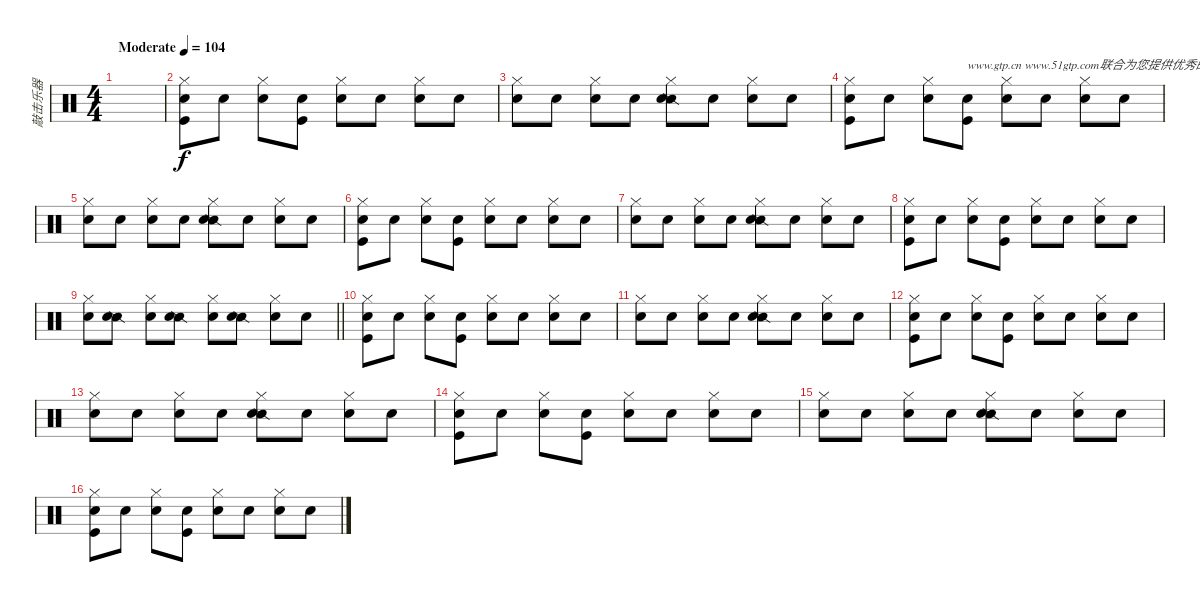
\track ("敲击乐器" "敲击乐器") {instrument percussion}
\staff {score}
\articulation defaults
\ts (4 4)
\tempo (104 "Moderate")
\clef neutral
\ks c
|
("Hi-Hat (closed)" "Snare (hit)" "Kick (hit)").8 "Snare (hit)".8 ("Hi-Hat (closed)" "Snare (hit)").8 ("Snare (hit)" "Kick (hit)").8 ("Hi-Hat (closed)" "Snare (hit)").8 "Snare (hit)".8 ("Hi-Hat (closed)" "Snare (hit)").8 "Snare (hit)".8 |
("Hi-Hat (closed)" "Snare (hit)").8 "Snare (hit)".8 ("Hi-Hat (closed)" "Snare (hit)").8 "Snare (hit)".8 ("Snare (side stick) 2" "Hi-Hat (closed)" "Snare (hit)").8 "Snare (hit)".8 ("Hi-Hat (closed)" "Snare (hit)").8 "Snare (hit)".8 |
("Hi-Hat (closed)" "Snare (hit)" "Kick (hit)").8 "Snare (hit)".8 ("Hi-Hat (closed)" "Snare (hit)").8 ("Snare (hit)" "Kick (hit)").8{txt "www.gtp.cn www.51gtp.com联合为您提供优秀的GTP!"} ("Hi-Hat (closed)" "Snare (hit)").8 "Snare (hit)".8 ("Hi-Hat (closed)" "Snare (hit)").8 "Snare (hit)".8 |
("Hi-Hat (closed)" "Snare (hit)").8 "Snare (hit)".8 ("Hi-Hat (closed)" "Snare (hit)").8 "Snare (hit)".8 ("Snare (side stick) 2" "Hi-Hat (closed)" "Snare (hit)").8 "Snare (hit)".8 ("Hi-Hat (closed)" "Snare (hit)").8 "Snare (hit)".8 |
("Hi-Hat (closed)" "Snare (hit)" "Kick (hit)").8 "Snare (hit)".8 ("Hi-Hat (closed)" "Snare (hit)").8 ("Snare (hit)" "Kick (hit)").8 ("Hi-Hat (closed)" "Snare (hit)").8 "Snare (hit)".8 ("Hi-Hat (closed)" "Snare (hit)").8 "Snare (hit)".8 |
("Hi-Hat (closed)" "Snare (hit)").8 "Snare (hit)".8 ("Hi-Hat (closed)" "Snare (hit)").8 "Snare (hit)".8 ("Snare (side stick) 2" "Hi-Hat (closed)" "Snare (hit)").8 "Snare (hit)".8 ("Hi-Hat (closed)" "Snare (hit)").8 "Snare (hit)".8 |
("Hi-Hat (closed)" "Snare (hit)" "Kick (hit)").8 "Snare (hit)".8 ("Hi-Hat (closed)" "Snare (hit)").8 ("Snare (hit)" "Kick (hit)").8 ("Hi-Hat (closed)" "Snare (hit)").8 "Snare (hit)".8 ("Hi-Hat (closed)" "Snare (hit)").8 "Snare (hit)".8 |
\barLineRight lightlight
("Hi-Hat (closed)" "Snare (hit)").8 ("Snare (side stick) 2" "Snare (hit)").8 ("Hi-Hat (closed)" "Snare (hit)").8 ("Snare (side stick) 2" "Snare (hit)").8 ("Hi-Hat (closed)" "Snare (hit)").8 ("Snare (side stick) 2" "Snare (hit)").8 ("Hi-Hat (closed)" "Snare (hit)").8 "Snare (hit)".8 |
("Hi-Hat (closed)" "Snare (hit)" "Kick (hit)").8 "Snare (hit)".8 ("Hi-Hat (closed)" "Snare (hit)").8 ("Snare (hit)" "Kick (hit)").8 ("Hi-Hat (closed)" "Snare (hit)").8 "Snare (hit)".8 ("Hi-Hat (closed)" "Snare (hit)").8 "Snare (hit)".8 |
("Hi-Hat (closed)" "Snare (hit)").8 "Snare (hit)".8 ("Hi-Hat (closed)" "Snare (hit)").8 "Snare (hit)".8 ("Snare (side stick) 2" "Hi-Hat (closed)" "Snare (hit)").8 "Snare (hit)".8 ("Hi-Hat (closed)" "Snare (hit)").8 "Snare (hit)".8 |
("Hi-Hat (closed)" "Snare (hit)" "Kick (hit)").8 "Snare (hit)".8 ("Hi-Hat (closed)" "Snare (hit)").8 ("Snare (hit)" "Kick (hit)").8 ("Hi-Hat (closed)" "Snare (hit)").8 "Snare (hit)".8 ("Hi-Hat (closed)" "Snare (hit)").8 "Snare (hit)".8 |
("Hi-Hat (closed)" "Snare (hit)").8 "Snare (hit)".8 ("Hi-Hat (closed)" "Snare (hit)").8 "Snare (hit)".8 ("Snare (side stick) 2" "Hi-Hat (closed)" "Snare (hit)").8 "Snare (hit)".8 ("Hi-Hat (closed)" "Snare (hit)").8 "Snare (hit)".8 |
("Hi-Hat (closed)" "Snare (hit)" "Kick (hit)").8 "Snare (hit)".8 ("Hi-Hat (closed)" "Snare (hit)").8 ("Snare (hit)" "Kick (hit)").8 ("Hi-Hat (closed)" "Snare (hit)").8 "Snare (hit)".8 ("Hi-Hat (closed)" "Snare (hit)").8 "Snare (hit)".8 |
("Hi-Hat (closed)" "Snare (hit)").8 "Snare (hit)".8 ("Hi-Hat (closed)" "Snare (hit)").8 "Snare (hit)".8 ("Snare (side stick) 2" "Hi-Hat (closed)" "Snare (hit)").8 "Snare (hit)".8 ("Hi-Hat (closed)" "Snare (hit)").8 "Snare (hit)".8 |
("Hi-Hat (closed)" "Snare (hit)" "Kick (hit)").8 "Snare (hit)".8 ("Hi-Hat (closed)" "Snare (hit)").8 ("Snare (hit)" "Kick (hit)").8 ("Hi-Hat (closed)" "Snare (hit)").8 "Snare (hit)".8 ("Hi-Hat (closed)" "Snare (hit)").8 "Snare (hit)".8
